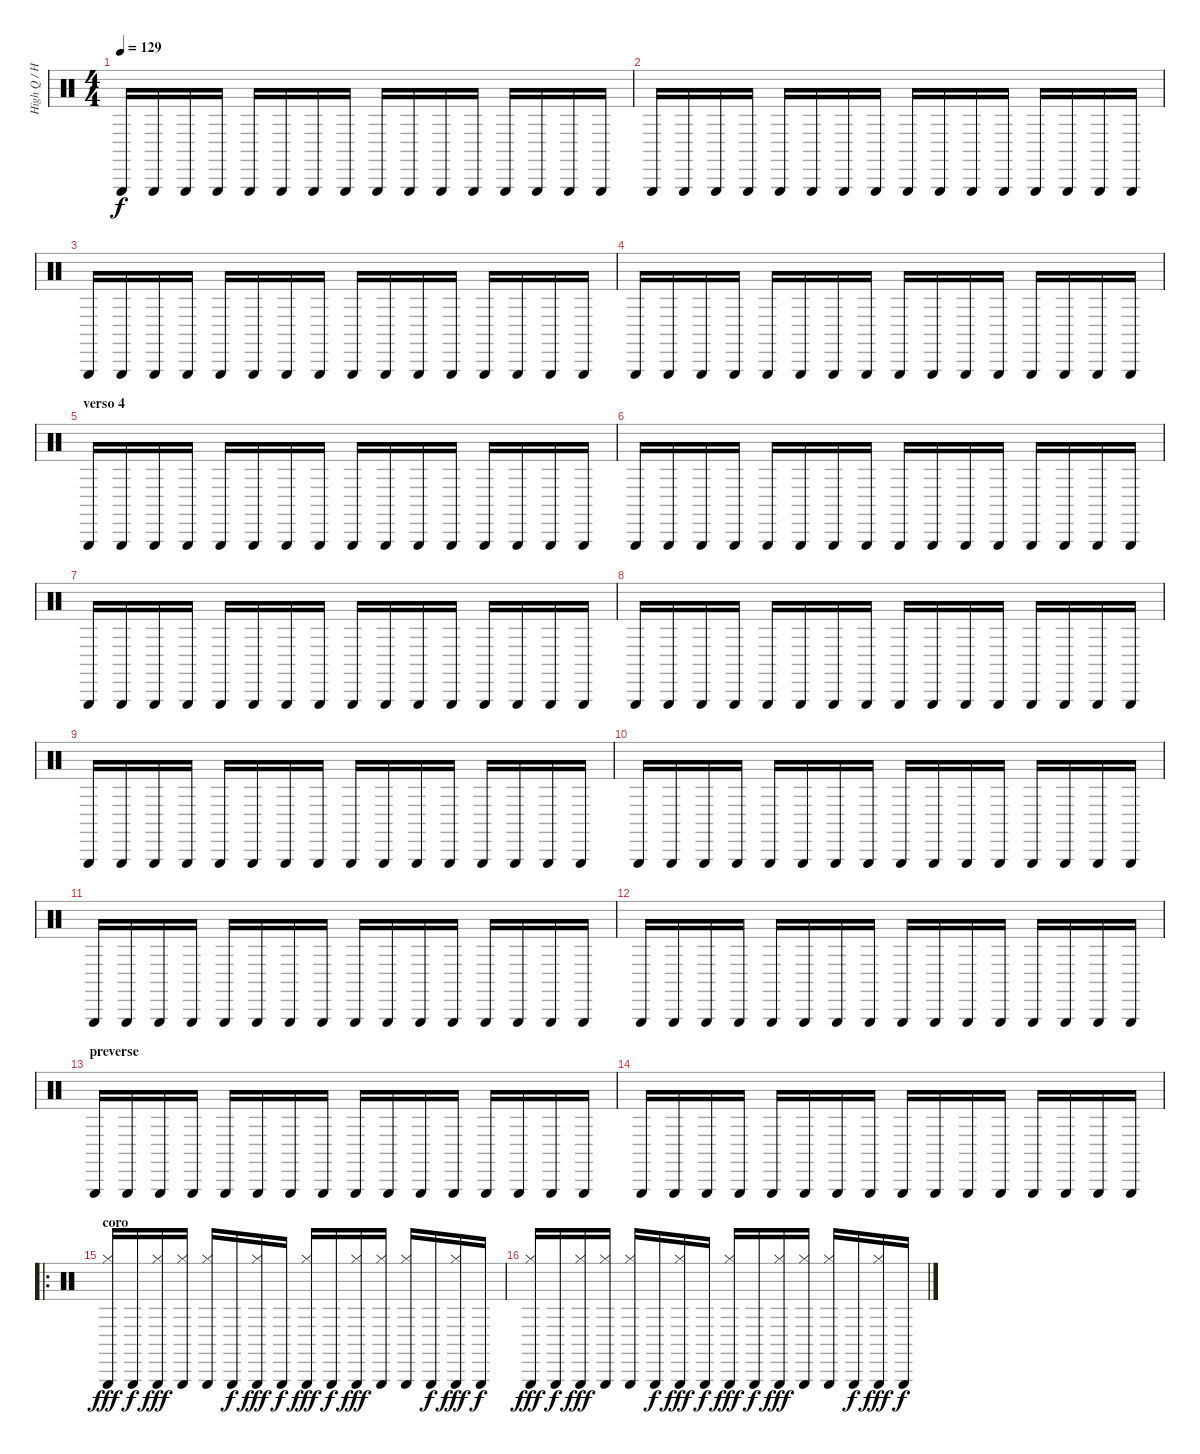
\track ("High Q / Hats" "High Q / H") {instrument percussion}
\staff {score}
\articulation defaults
\ts (4 4)
\tempo 129
\clef neutral
\ks c "Triangle (hit)".16{dy f} "Triangle (hit)".16 "Triangle (hit)".16 "Triangle (hit)".16 "Triangle (hit)".16 "Triangle (hit)".16 "Triangle (hit)".16 "Triangle (hit)".16 "Triangle (hit)".16 "Triangle (hit)".16 "Triangle (hit)".16 "Triangle (hit)".16 "Triangle (hit)".16 "Triangle (hit)".16 "Triangle (hit)".16 "Triangle (hit)".16
|
"Triangle (hit)".16 "Triangle (hit)".16 "Triangle (hit)".16 "Triangle (hit)".16 "Triangle (hit)".16 "Triangle (hit)".16 "Triangle (hit)".16 "Triangle (hit)".16 "Triangle (hit)".16 "Triangle (hit)".16 "Triangle (hit)".16 "Triangle (hit)".16 "Triangle (hit)".16 "Triangle (hit)".16 "Triangle (hit)".16 "Triangle (hit)".16 |
"Triangle (hit)".16 "Triangle (hit)".16 "Triangle (hit)".16 "Triangle (hit)".16 "Triangle (hit)".16 "Triangle (hit)".16 "Triangle (hit)".16 "Triangle (hit)".16 "Triangle (hit)".16 "Triangle (hit)".16 "Triangle (hit)".16 "Triangle (hit)".16 "Triangle (hit)".16 "Triangle (hit)".16 "Triangle (hit)".16 "Triangle (hit)".16 |
"Triangle (hit)".16 "Triangle (hit)".16 "Triangle (hit)".16 "Triangle (hit)".16 "Triangle (hit)".16 "Triangle (hit)".16 "Triangle (hit)".16 "Triangle (hit)".16 "Triangle (hit)".16 "Triangle (hit)".16 "Triangle (hit)".16 "Triangle (hit)".16 "Triangle (hit)".16 "Triangle (hit)".16 "Triangle (hit)".16 "Triangle (hit)".16 |
\section ("" "verso 4")
"Triangle (hit)".16 "Triangle (hit)".16 "Triangle (hit)".16 "Triangle (hit)".16 "Triangle (hit)".16 "Triangle (hit)".16 "Triangle (hit)".16 "Triangle (hit)".16 "Triangle (hit)".16 "Triangle (hit)".16 "Triangle (hit)".16 "Triangle (hit)".16 "Triangle (hit)".16 "Triangle (hit)".16 "Triangle (hit)".16 "Triangle (hit)".16 |
"Triangle (hit)".16 "Triangle (hit)".16 "Triangle (hit)".16 "Triangle (hit)".16 "Triangle (hit)".16 "Triangle (hit)".16 "Triangle (hit)".16 "Triangle (hit)".16 "Triangle (hit)".16 "Triangle (hit)".16 "Triangle (hit)".16 "Triangle (hit)".16 "Triangle (hit)".16 "Triangle (hit)".16 "Triangle (hit)".16 "Triangle (hit)".16 |
"Triangle (hit)".16 "Triangle (hit)".16 "Triangle (hit)".16 "Triangle (hit)".16 "Triangle (hit)".16 "Triangle (hit)".16 "Triangle (hit)".16 "Triangle (hit)".16 "Triangle (hit)".16 "Triangle (hit)".16 "Triangle (hit)".16 "Triangle (hit)".16 "Triangle (hit)".16 "Triangle (hit)".16 "Triangle (hit)".16 "Triangle (hit)".16 |
"Triangle (hit)".16 "Triangle (hit)".16 "Triangle (hit)".16 "Triangle (hit)".16 "Triangle (hit)".16 "Triangle (hit)".16 "Triangle (hit)".16 "Triangle (hit)".16 "Triangle (hit)".16 "Triangle (hit)".16 "Triangle (hit)".16 "Triangle (hit)".16 "Triangle (hit)".16 "Triangle (hit)".16 "Triangle (hit)".16 "Triangle (hit)".16 |
"Triangle (hit)".16 "Triangle (hit)".16 "Triangle (hit)".16 "Triangle (hit)".16 "Triangle (hit)".16 "Triangle (hit)".16 "Triangle (hit)".16 "Triangle (hit)".16 "Triangle (hit)".16 "Triangle (hit)".16 "Triangle (hit)".16 "Triangle (hit)".16 "Triangle (hit)".16 "Triangle (hit)".16 "Triangle (hit)".16 "Triangle (hit)".16 |
"Triangle (hit)".16 "Triangle (hit)".16 "Triangle (hit)".16 "Triangle (hit)".16 "Triangle (hit)".16 "Triangle (hit)".16 "Triangle (hit)".16 "Triangle (hit)".16 "Triangle (hit)".16 "Triangle (hit)".16 "Triangle (hit)".16 "Triangle (hit)".16 "Triangle (hit)".16 "Triangle (hit)".16 "Triangle (hit)".16 "Triangle (hit)".16 |
"Triangle (hit)".16 "Triangle (hit)".16 "Triangle (hit)".16 "Triangle (hit)".16 "Triangle (hit)".16 "Triangle (hit)".16 "Triangle (hit)".16 "Triangle (hit)".16 "Triangle (hit)".16 "Triangle (hit)".16 "Triangle (hit)".16 "Triangle (hit)".16 "Triangle (hit)".16 "Triangle (hit)".16 "Triangle (hit)".16 "Triangle (hit)".16 |
"Triangle (hit)".16 "Triangle (hit)".16 "Triangle (hit)".16 "Triangle (hit)".16 "Triangle (hit)".16 "Triangle (hit)".16 "Triangle (hit)".16 "Triangle (hit)".16 "Triangle (hit)".16 "Triangle (hit)".16 "Triangle (hit)".16 "Triangle (hit)".16 "Triangle (hit)".16 "Triangle (hit)".16 "Triangle (hit)".16 "Triangle (hit)".16 |
\section ("" "preverse")
"Triangle (hit)".16 "Triangle (hit)".16 "Triangle (hit)".16 "Triangle (hit)".16 "Triangle (hit)".16 "Triangle (hit)".16 "Triangle (hit)".16 "Triangle (hit)".16 "Triangle (hit)".16 "Triangle (hit)".16 "Triangle (hit)".16 "Triangle (hit)".16 "Triangle (hit)".16 "Triangle (hit)".16 "Triangle (hit)".16 "Triangle (hit)".16 |
"Triangle (hit)".16 "Triangle (hit)".16 "Triangle (hit)".16 "Triangle (hit)".16 "Triangle (hit)".16 "Triangle (hit)".16 "Triangle (hit)".16 "Triangle (hit)".16 "Triangle (hit)".16 "Triangle (hit)".16 "Triangle (hit)".16 "Triangle (hit)".16 "Triangle (hit)".16 "Triangle (hit)".16 "Triangle (hit)".16 "Triangle (hit)".16 |
\ro
\section ("" "coro")
("Triangle (hit)" "Hi-Hat (closed)").16{dy fff} "Triangle (hit)".16{dy f} ("Triangle (hit)" "Hi-Hat (closed)").16{dy fff} ("Triangle (hit)" "Hi-Hat (closed)").16 ("Triangle (hit)" "Hi-Hat (closed)").16 "Triangle (hit)".16{dy f} ("Triangle (hit)" "Hi-Hat (closed)").16{dy fff} "Triangle (hit)".16{dy f} ("Triangle (hit)" "Hi-Hat (closed)").16{dy fff} "Triangle (hit)".16{dy f} ("Triangle (hit)" "Hi-Hat (closed)").16{dy fff} ("Triangle (hit)" "Hi-Hat (closed)").16 ("Triangle (hit)" "Hi-Hat (closed)").16 "Triangle (hit)".16{dy f} ("Triangle (hit)" "Hi-Hat (closed)").16{dy fff} "Triangle (hit)".16{dy f} |
("Triangle (hit)" "Hi-Hat (closed)").16{dy fff} "Triangle (hit)".16{dy f} ("Triangle (hit)" "Hi-Hat (closed)").16{dy fff} ("Triangle (hit)" "Hi-Hat (closed)").16 ("Triangle (hit)" "Hi-Hat (closed)").16 "Triangle (hit)".16{dy f} ("Triangle (hit)" "Hi-Hat (closed)").16{dy fff} "Triangle (hit)".16{dy f} ("Triangle (hit)" "Hi-Hat (closed)").16{dy fff} "Triangle (hit)".16{dy f} ("Triangle (hit)" "Hi-Hat (closed)").16{dy fff} ("Triangle (hit)" "Hi-Hat (closed)").16 ("Triangle (hit)" "Hi-Hat (closed)").16 "Triangle (hit)".16{dy f} ("Triangle (hit)" "Hi-Hat (closed)").16{dy fff} "Triangle (hit)".16{dy f}
